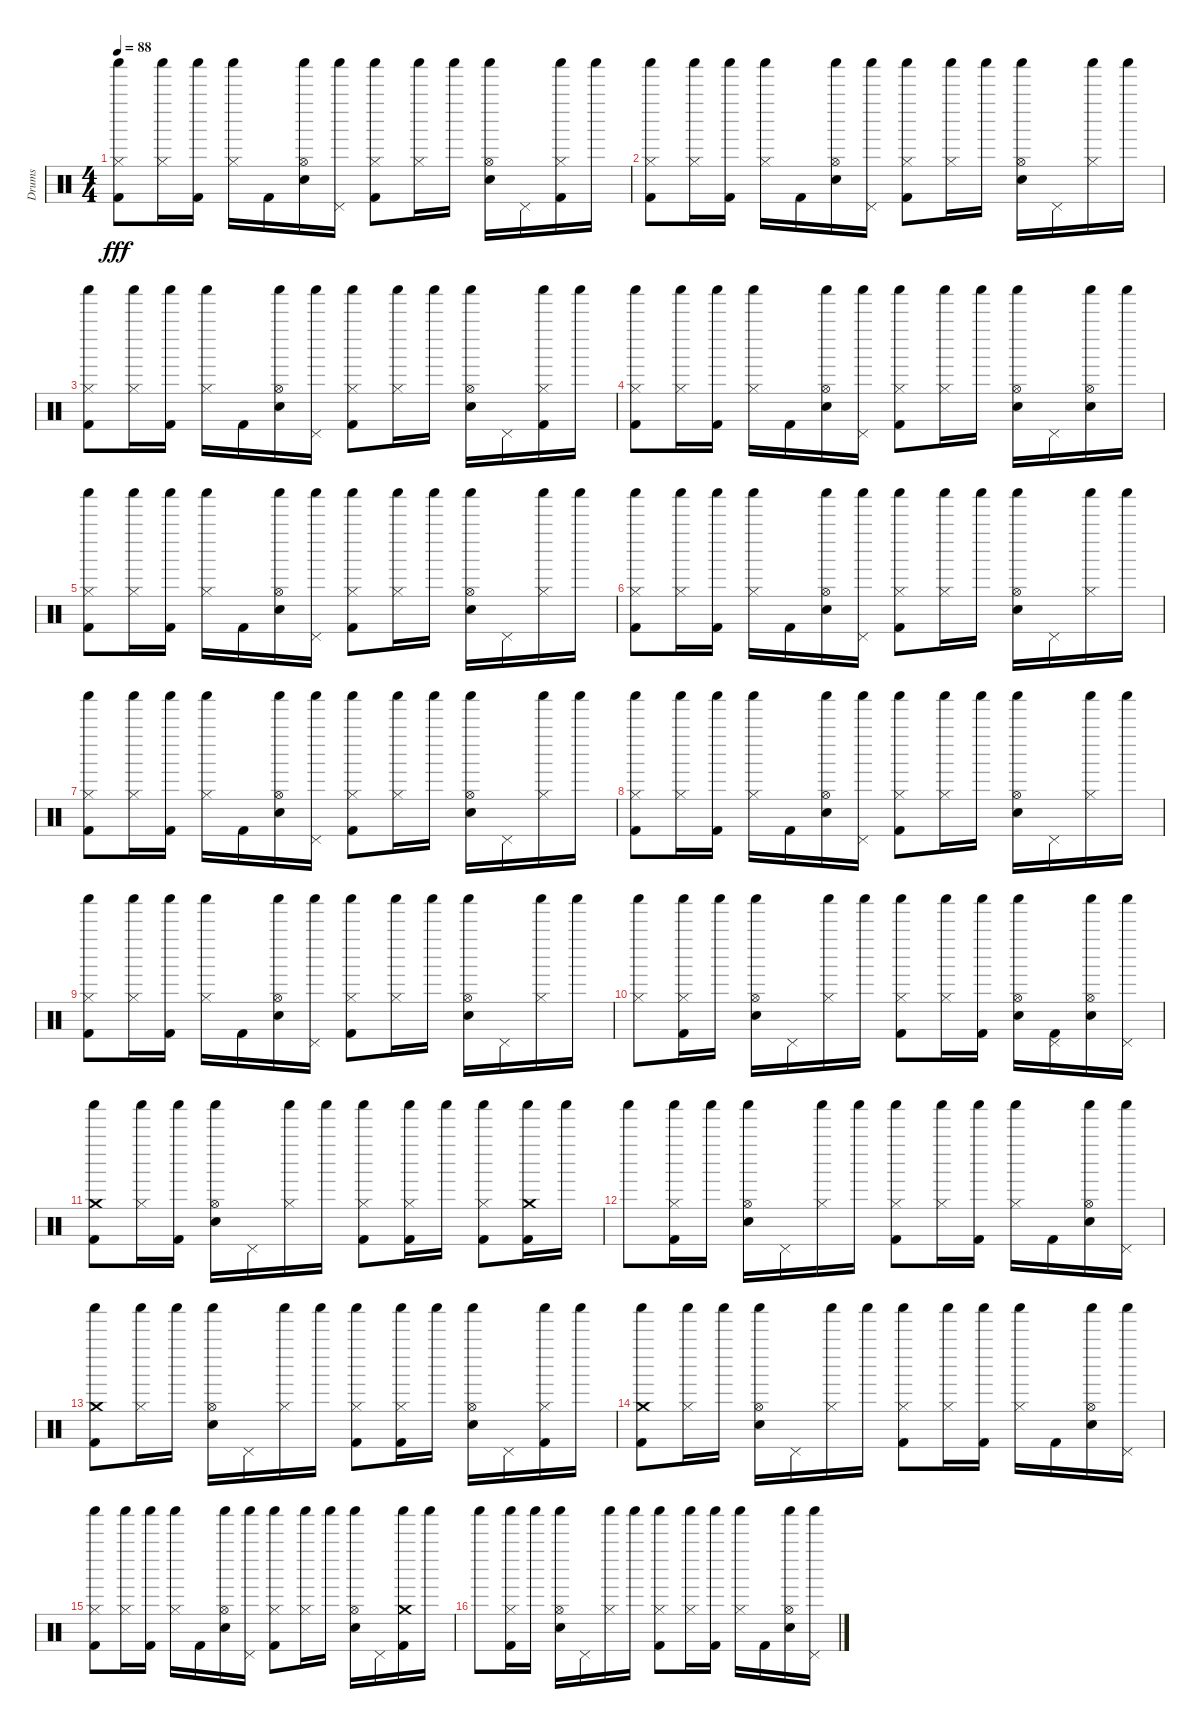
\track ("Drums" "Drums") {instrument percussion}
\staff {score}
\articulation defaults
\ts (4 4)
\tempo 88
\clef neutral
\ks c
("Hi-Hat (closed)" "Shaker (hit)" "Kick (hit) 2").8{dy fff} ("Hi-Hat (closed)" "Shaker (hit)").16 ("Shaker (hit)" "Kick (hit) 2").16 ("Hi-Hat (closed)" "Shaker (hit)").16 "Kick (hit) 2".16 ("Hi-Hat (open)" "Shaker (hit)" "Snare (hit) 2").16 ("Pedal Hi-Hat (hit)" "Shaker (hit)").16 ("Hi-Hat (closed)" "Shaker (hit)" "Kick (hit) 2").8 ("Hi-Hat (closed)" "Shaker (hit)").16 "Shaker (hit)".16 ("Hi-Hat (open)" "Shaker (hit)" "Snare (hit) 2").16 "Pedal Hi-Hat (hit)".16 ("Hi-Hat (closed)" "Shaker (hit)" "Kick (hit) 2").16 "Shaker (hit)".16 |
("Hi-Hat (closed)" "Shaker (hit)" "Kick (hit) 2").8 ("Hi-Hat (closed)" "Shaker (hit)").16 ("Shaker (hit)" "Kick (hit) 2").16 ("Hi-Hat (closed)" "Shaker (hit)").16 "Kick (hit) 2".16 ("Hi-Hat (open)" "Shaker (hit)" "Snare (hit) 2").16 ("Pedal Hi-Hat (hit)" "Shaker (hit)").16 ("Hi-Hat (closed)" "Shaker (hit)" "Kick (hit) 2").8 ("Hi-Hat (closed)" "Shaker (hit)").16 "Shaker (hit)".16 ("Hi-Hat (open)" "Shaker (hit)" "Snare (hit) 2").16 "Pedal Hi-Hat (hit)".16 ("Hi-Hat (closed)" "Shaker (hit)").16 "Shaker (hit)".16 |
("Hi-Hat (closed)" "Shaker (hit)" "Kick (hit) 2").8 ("Hi-Hat (closed)" "Shaker (hit)").16 ("Shaker (hit)" "Kick (hit) 2").16 ("Hi-Hat (closed)" "Shaker (hit)").16 "Kick (hit) 2".16 ("Hi-Hat (open)" "Shaker (hit)" "Snare (hit) 2").16 ("Pedal Hi-Hat (hit)" "Shaker (hit)").16 ("Hi-Hat (closed)" "Shaker (hit)" "Kick (hit) 2").8 ("Hi-Hat (closed)" "Shaker (hit)").16 "Shaker (hit)".16 ("Hi-Hat (open)" "Shaker (hit)" "Snare (hit) 2").16 "Pedal Hi-Hat (hit)".16 ("Hi-Hat (closed)" "Shaker (hit)" "Kick (hit) 2").16 "Shaker (hit)".16 |
("Hi-Hat (closed)" "Shaker (hit)" "Kick (hit) 2").8 ("Hi-Hat (closed)" "Shaker (hit)").16 ("Shaker (hit)" "Kick (hit) 2").16 ("Hi-Hat (closed)" "Shaker (hit)").16 "Kick (hit) 2".16 ("Hi-Hat (open)" "Shaker (hit)" "Snare (hit) 2").16 ("Pedal Hi-Hat (hit)" "Shaker (hit)").16 ("Hi-Hat (closed)" "Shaker (hit)" "Kick (hit) 2").8 ("Hi-Hat (closed)" "Shaker (hit)").16 "Shaker (hit)".16 ("Hi-Hat (open)" "Shaker (hit)" "Snare (hit) 2").16 "Pedal Hi-Hat (hit)".16 ("Hi-Hat (open)" "Shaker (hit)" "Snare (hit) 2").16 "Shaker (hit)".16 |
("Hi-Hat (closed)" "Shaker (hit)" "Kick (hit) 2").8 ("Hi-Hat (closed)" "Shaker (hit)").16 ("Shaker (hit)" "Kick (hit) 2").16 ("Hi-Hat (closed)" "Shaker (hit)").16 "Kick (hit) 2".16 ("Hi-Hat (open)" "Shaker (hit)" "Snare (hit) 2").16 ("Pedal Hi-Hat (hit)" "Shaker (hit)").16 ("Hi-Hat (closed)" "Shaker (hit)" "Kick (hit) 2").8 ("Hi-Hat (closed)" "Shaker (hit)").16 "Shaker (hit)".16 ("Hi-Hat (open)" "Shaker (hit)" "Snare (hit) 2").16 "Pedal Hi-Hat (hit)".16 ("Hi-Hat (closed)" "Shaker (hit)").16 "Shaker (hit)".16 |
("Hi-Hat (closed)" "Shaker (hit)" "Kick (hit) 2").8 ("Hi-Hat (closed)" "Shaker (hit)").16 ("Shaker (hit)" "Kick (hit) 2").16 ("Hi-Hat (closed)" "Shaker (hit)").16 "Kick (hit) 2".16 ("Hi-Hat (open)" "Shaker (hit)" "Snare (hit) 2").16 ("Pedal Hi-Hat (hit)" "Shaker (hit)").16 ("Hi-Hat (closed)" "Shaker (hit)" "Kick (hit) 2").8 ("Hi-Hat (closed)" "Shaker (hit)").16 "Shaker (hit)".16 ("Hi-Hat (open)" "Shaker (hit)" "Snare (hit) 2").16 "Pedal Hi-Hat (hit)".16 ("Hi-Hat (closed)" "Shaker (hit)").16 "Shaker (hit)".16 |
("Hi-Hat (closed)" "Shaker (hit)" "Kick (hit) 2").8 ("Hi-Hat (closed)" "Shaker (hit)").16 ("Shaker (hit)" "Kick (hit) 2").16 ("Hi-Hat (closed)" "Shaker (hit)").16 "Kick (hit) 2".16 ("Hi-Hat (open)" "Shaker (hit)" "Snare (hit) 2").16 ("Pedal Hi-Hat (hit)" "Shaker (hit)").16 ("Hi-Hat (closed)" "Shaker (hit)" "Kick (hit) 2").8 ("Hi-Hat (closed)" "Shaker (hit)").16 "Shaker (hit)".16 ("Hi-Hat (open)" "Shaker (hit)" "Snare (hit) 2").16 "Pedal Hi-Hat (hit)".16 ("Hi-Hat (closed)" "Shaker (hit)").16 "Shaker (hit)".16 |
("Hi-Hat (closed)" "Shaker (hit)" "Kick (hit) 2").8 ("Hi-Hat (closed)" "Shaker (hit)").16 ("Shaker (hit)" "Kick (hit) 2").16 ("Hi-Hat (closed)" "Shaker (hit)").16 "Kick (hit) 2".16 ("Hi-Hat (open)" "Shaker (hit)" "Snare (hit) 2").16 ("Pedal Hi-Hat (hit)" "Shaker (hit)").16 ("Hi-Hat (closed)" "Shaker (hit)" "Kick (hit) 2").8 ("Hi-Hat (closed)" "Shaker (hit)").16 "Shaker (hit)".16 ("Hi-Hat (open)" "Shaker (hit)" "Snare (hit) 2").16 "Pedal Hi-Hat (hit)".16 ("Hi-Hat (closed)" "Shaker (hit)").16 "Shaker (hit)".16 |
("Hi-Hat (closed)" "Shaker (hit)" "Kick (hit) 2").8 ("Hi-Hat (closed)" "Shaker (hit)").16 ("Shaker (hit)" "Kick (hit) 2").16 ("Hi-Hat (closed)" "Shaker (hit)").16 "Kick (hit) 2".16 ("Hi-Hat (open)" "Shaker (hit)" "Snare (hit) 2").16 ("Pedal Hi-Hat (hit)" "Shaker (hit)").16 ("Hi-Hat (closed)" "Shaker (hit)" "Kick (hit) 2").8 ("Hi-Hat (closed)" "Shaker (hit)").16 "Shaker (hit)".16 ("Hi-Hat (open)" "Shaker (hit)" "Snare (hit) 2").16 "Pedal Hi-Hat (hit)".16 ("Hi-Hat (closed)" "Shaker (hit)").16 "Shaker (hit)".16 |
("Hi-Hat (closed)" "Shaker (hit)").8 ("Hi-Hat (closed)" "Shaker (hit)" "Kick (hit) 2").16 "Shaker (hit)".16 ("Hi-Hat (open)" "Shaker (hit)" "Snare (hit) 2").16 "Pedal Hi-Hat (hit)".16 ("Hi-Hat (closed)" "Shaker (hit)").16 "Shaker (hit)".16 ("Hi-Hat (closed)" "Shaker (hit)" "Kick (hit) 2").8 ("Hi-Hat (closed)" "Shaker (hit)").16 ("Shaker (hit)" "Kick (hit) 2").16 ("Hi-Hat (open)" "Shaker (hit)" "Snare (hit) 2").16 ("Pedal Hi-Hat (hit)" "Kick (hit) 2").16 ("Hi-Hat (open)" "Shaker (hit)" "Snare (hit) 2").16 ("Pedal Hi-Hat (hit)" "Shaker (hit)").16 |
("Crash medium (hit)" "Shaker (hit)" "Kick (hit) 2").8 ("Hi-Hat (closed)" "Shaker (hit)").16 ("Shaker (hit)" "Kick (hit) 2").16 ("Hi-Hat (open)" "Shaker (hit)" "Snare (hit) 2").16 "Pedal Hi-Hat (hit)".16 ("Hi-Hat (closed)" "Shaker (hit)").16 "Shaker (hit)".16 ("Hi-Hat (closed)" "Shaker (hit)" "Kick (hit) 2").8 ("Hi-Hat (closed)" "Shaker (hit)" "Kick (hit) 2").16 "Shaker (hit)".16 ("Hi-Hat (closed)" "Shaker (hit)" "Kick (hit) 2").8 ("Crash medium (hit)" "Shaker (hit)" "Kick (hit) 2").16 "Shaker (hit)".16 |
"Shaker (hit)".8 ("Hi-Hat (closed)" "Shaker (hit)" "Kick (hit) 2").16 "Shaker (hit)".16 ("Hi-Hat (open)" "Shaker (hit)" "Snare (hit) 2").16 "Pedal Hi-Hat (hit)".16 ("Hi-Hat (closed)" "Shaker (hit)").16 "Shaker (hit)".16 ("Hi-Hat (closed)" "Shaker (hit)" "Kick (hit) 2").8 ("Hi-Hat (closed)" "Shaker (hit)").16 ("Shaker (hit)" "Kick (hit) 2").16 ("Hi-Hat (closed)" "Shaker (hit)").16 "Kick (hit) 2".16 ("Hi-Hat (open)" "Shaker (hit)" "Snare (hit) 2").16 ("Pedal Hi-Hat (hit)" "Shaker (hit)").16 |
("Crash medium (hit)" "Shaker (hit)" "Kick (hit) 2").8 ("Hi-Hat (closed)" "Shaker (hit)").16 "Shaker (hit)".16 ("Hi-Hat (open)" "Shaker (hit)" "Snare (hit) 2").16 "Pedal Hi-Hat (hit)".16 ("Hi-Hat (closed)" "Shaker (hit)").16 "Shaker (hit)".16 ("Hi-Hat (closed)" "Shaker (hit)" "Kick (hit) 2").8 ("Hi-Hat (closed)" "Shaker (hit)" "Kick (hit) 2").16 "Shaker (hit)".16 ("Hi-Hat (open)" "Shaker (hit)" "Snare (hit) 2").16 "Pedal Hi-Hat (hit)".16 ("Hi-Hat (closed)" "Shaker (hit)" "Kick (hit) 2").16 "Shaker (hit)".16 |
("Crash medium (hit)" "Shaker (hit)" "Kick (hit) 2").8 ("Hi-Hat (closed)" "Shaker (hit)").16 "Shaker (hit)".16 ("Hi-Hat (open)" "Shaker (hit)" "Snare (hit) 2").16 "Pedal Hi-Hat (hit)".16 ("Hi-Hat (closed)" "Shaker (hit)").16 "Shaker (hit)".16 ("Hi-Hat (closed)" "Shaker (hit)" "Kick (hit) 2").8 ("Hi-Hat (closed)" "Shaker (hit)").16 ("Shaker (hit)" "Kick (hit) 2").16 ("Hi-Hat (closed)" "Shaker (hit)").16 "Kick (hit) 2".16 ("Hi-Hat (open)" "Shaker (hit)" "Snare (hit) 2").16 ("Pedal Hi-Hat (hit)" "Shaker (hit)").16 |
("Hi-Hat (closed)" "Shaker (hit)" "Kick (hit) 2").8 ("Hi-Hat (closed)" "Shaker (hit)").16 ("Shaker (hit)" "Kick (hit) 2").16 ("Hi-Hat (closed)" "Shaker (hit)").16 "Kick (hit) 2".16 ("Hi-Hat (open)" "Shaker (hit)" "Snare (hit) 2").16 ("Pedal Hi-Hat (hit)" "Shaker (hit)").16 ("Hi-Hat (closed)" "Shaker (hit)" "Kick (hit) 2").8 ("Hi-Hat (closed)" "Shaker (hit)").16 "Shaker (hit)".16 ("Hi-Hat (open)" "Shaker (hit)" "Snare (hit) 2").16 "Pedal Hi-Hat (hit)".16 ("Crash medium (hit)" "Shaker (hit)" "Kick (hit) 2").16 "Shaker (hit)".16 |
"Shaker (hit)".8 ("Hi-Hat (closed)" "Shaker (hit)" "Kick (hit) 2").16 "Shaker (hit)".16 ("Hi-Hat (open)" "Shaker (hit)" "Snare (hit) 2").16 "Pedal Hi-Hat (hit)".16 ("Hi-Hat (closed)" "Shaker (hit)").16 "Shaker (hit)".16 ("Hi-Hat (closed)" "Shaker (hit)" "Kick (hit) 2").8 ("Hi-Hat (closed)" "Shaker (hit)").16 ("Shaker (hit)" "Kick (hit) 2").16 ("Hi-Hat (closed)" "Shaker (hit)").16 "Kick (hit) 2".16 ("Hi-Hat (open)" "Shaker (hit)" "Snare (hit) 2").16 ("Pedal Hi-Hat (hit)" "Shaker (hit)").16
